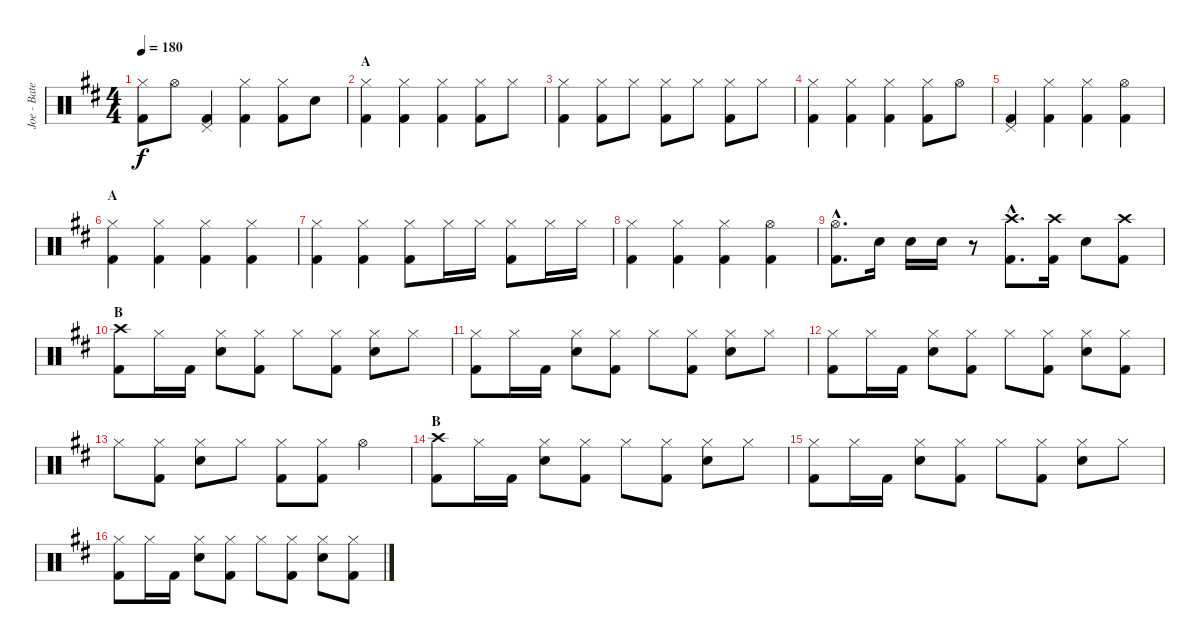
\track ("Joe - Batería -" "Joe - Bate") {instrument percussion}
\staff {score}
\articulation defaults
\ts (4 4)
\tempo 180
\clef neutral
\ks bminor
("Hi-Hat (closed)" "Kick (hit) 2").8{dy f} "Hi-Hat (open)".8 ("Pedal Hi-Hat (hit)" "Kick (hit) 2").4 ("Hi-Hat (closed)" "Kick (hit) 2").4 ("Hi-Hat (closed)" "Kick (hit) 2").8 "Snare (hit) 2".8 |
\section ("" "A")
("Hi-Hat (closed)" "Kick (hit) 2").4 ("Hi-Hat (closed)" "Kick (hit) 2").4 ("Hi-Hat (closed)" "Kick (hit) 2").4 ("Hi-Hat (closed)" "Kick (hit) 2").8 "Hi-Hat (closed)".8 |
("Hi-Hat (closed)" "Kick (hit) 2").4 ("Hi-Hat (closed)" "Kick (hit) 2").8 "Hi-Hat (closed)".8 ("Hi-Hat (closed)" "Kick (hit) 2").8 "Hi-Hat (closed)".8 ("Hi-Hat (closed)" "Kick (hit) 2").8 "Hi-Hat (closed)".8 |
("Hi-Hat (closed)" "Kick (hit) 2").4 ("Hi-Hat (closed)" "Kick (hit) 2").4 ("Hi-Hat (closed)" "Kick (hit) 2").4 ("Hi-Hat (closed)" "Kick (hit) 2").8 "Hi-Hat (open)".8 |
("Pedal Hi-Hat (hit)" "Kick (hit) 2").4 ("Hi-Hat (closed)" "Kick (hit) 2").4 ("Hi-Hat (closed)" "Kick (hit) 2").4 ("Hi-Hat (open)" "Kick (hit) 2").4 |
\section ("" "A")
("Hi-Hat (closed)" "Kick (hit) 2").4 ("Hi-Hat (closed)" "Kick (hit) 2").4 ("Hi-Hat (closed)" "Kick (hit) 2").4 ("Hi-Hat (closed)" "Kick (hit) 2").4 |
("Hi-Hat (closed)" "Kick (hit) 2").4 ("Hi-Hat (closed)" "Kick (hit) 2").4 ("Hi-Hat (closed)" "Kick (hit) 2").8 "Hi-Hat (closed)".16 "Hi-Hat (closed)".16 ("Hi-Hat (closed)" "Kick (hit) 2").8 "Hi-Hat (closed)".16 "Hi-Hat (closed)".16 |
("Hi-Hat (closed)" "Kick (hit) 2").4 ("Hi-Hat (closed)" "Kick (hit) 2").4 ("Hi-Hat (closed)" "Kick (hit) 2").4 ("Hi-Hat (open)" "Kick (hit) 2").4 |
("Hi-Hat (open)"{hac} "Kick (hit) 2"{hac}).8{d} "Snare (hit) 2".16 "Snare (hit) 2".16 "Snare (hit) 2".16 r.8 ("Crash high (hit)"{hac} "Kick (hit) 2"{hac}).8{d} ("Crash high (hit)" "Kick (hit) 2").16 "Snare (hit) 2".8 ("Crash high (hit)" "Kick (hit) 2").8 |
\section ("" "B")
("Crash high (hit)" "Kick (hit) 2").8 "Hi-Hat (closed)".16 "Kick (hit) 2".16 ("Hi-Hat (closed)" "Snare (hit) 2").8 ("Hi-Hat (closed)" "Kick (hit) 2").8 "Hi-Hat (closed)".8 ("Hi-Hat (closed)" "Kick (hit) 2").8 ("Hi-Hat (closed)" "Snare (hit) 2").8 "Hi-Hat (closed)".8 |
("Hi-Hat (closed)" "Kick (hit) 2").8 "Hi-Hat (closed)".16 "Kick (hit) 2".16 ("Hi-Hat (closed)" "Snare (hit) 2").8 ("Hi-Hat (closed)" "Kick (hit) 2").8 "Hi-Hat (closed)".8 ("Hi-Hat (closed)" "Kick (hit) 2").8 ("Hi-Hat (closed)" "Snare (hit) 2").8 "Hi-Hat (closed)".8 |
("Hi-Hat (closed)" "Kick (hit) 2").8 "Hi-Hat (closed)".16 "Kick (hit) 2".16 ("Hi-Hat (closed)" "Snare (hit) 2").8 ("Hi-Hat (closed)" "Kick (hit) 2").8 "Hi-Hat (closed)".8 ("Hi-Hat (closed)" "Kick (hit) 2").8 ("Hi-Hat (closed)" "Snare (hit) 2").8 ("Hi-Hat (closed)" "Kick (hit) 2").8 |
"Hi-Hat (closed)".8 ("Hi-Hat (closed)" "Kick (hit) 2").8 ("Hi-Hat (closed)" "Snare (hit) 2").8 "Hi-Hat (closed)".8 ("Hi-Hat (closed)" "Kick (hit) 2").8 ("Hi-Hat (closed)" "Kick (hit) 2").8 "Hi-Hat (open)".4 |
\section ("" "B")
("Crash high (hit)" "Kick (hit) 2").8 "Hi-Hat (closed)".16 "Kick (hit) 2".16 ("Hi-Hat (closed)" "Snare (hit) 2").8 ("Hi-Hat (closed)" "Kick (hit) 2").8 "Hi-Hat (closed)".8 ("Hi-Hat (closed)" "Kick (hit) 2").8 ("Hi-Hat (closed)" "Snare (hit) 2").8 "Hi-Hat (closed)".8 |
("Hi-Hat (closed)" "Kick (hit) 2").8 "Hi-Hat (closed)".16 "Kick (hit) 2".16 ("Hi-Hat (closed)" "Snare (hit) 2").8 ("Hi-Hat (closed)" "Kick (hit) 2").8 "Hi-Hat (closed)".8 ("Hi-Hat (closed)" "Kick (hit) 2").8 ("Hi-Hat (closed)" "Snare (hit) 2").8 "Hi-Hat (closed)".8 |
("Hi-Hat (closed)" "Kick (hit) 2").8 "Hi-Hat (closed)".16 "Kick (hit) 2".16 ("Hi-Hat (closed)" "Snare (hit) 2").8 ("Hi-Hat (closed)" "Kick (hit) 2").8 "Hi-Hat (closed)".8 ("Hi-Hat (closed)" "Kick (hit) 2").8 ("Hi-Hat (closed)" "Snare (hit) 2").8 ("Hi-Hat (closed)" "Kick (hit) 2").8
